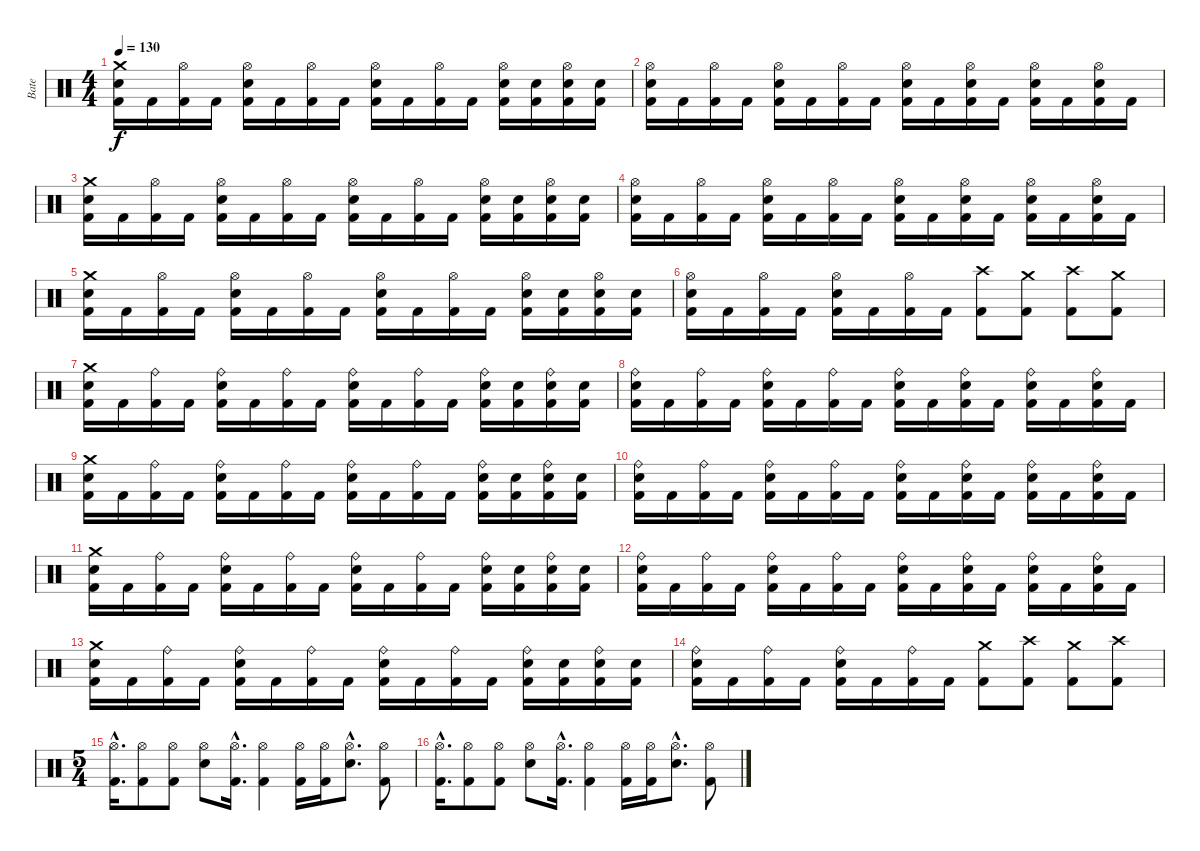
\track ("Bate" "Bate") {instrument percussion}
\staff {score}
\articulation defaults
\ts (4 4)
\tempo 130
\clef neutral
\ks c
("Crash medium (hit)" "Snare (hit) 2" "Kick (hit) 2").16{dy f} "Kick (hit) 2".16 ("Hi-Hat (open)" "Kick (hit) 2").16 "Kick (hit) 2".16 ("Hi-Hat (open)" "Snare (hit) 2" "Kick (hit) 2").16 "Kick (hit) 2".16 ("Hi-Hat (open)" "Kick (hit) 2").16 "Kick (hit) 2".16 ("Hi-Hat (open)" "Snare (hit) 2" "Kick (hit) 2").16 "Kick (hit) 2".16 ("Hi-Hat (open)" "Kick (hit) 2").16 "Kick (hit) 2".16 ("Hi-Hat (open)" "Snare (hit) 2" "Kick (hit) 2").16 ("Snare (hit) 2" "Kick (hit) 2").16 ("Hi-Hat (open)" "Snare (hit) 2" "Kick (hit) 2").16 ("Snare (hit) 2" "Kick (hit) 2").16 |
("Hi-Hat (open)" "Snare (hit) 2" "Kick (hit) 2").16 "Kick (hit) 2".16 ("Hi-Hat (open)" "Kick (hit) 2").16 "Kick (hit) 2".16 ("Hi-Hat (open)" "Snare (hit) 2" "Kick (hit) 2").16 "Kick (hit) 2".16 ("Hi-Hat (open)" "Kick (hit) 2").16 "Kick (hit) 2".16 ("Hi-Hat (open)" "Snare (hit) 2" "Kick (hit) 2").16 "Kick (hit) 2".16 ("Hi-Hat (open)" "Snare (hit) 2" "Kick (hit) 2").16 "Kick (hit) 2".16 ("Hi-Hat (open)" "Snare (hit) 2" "Kick (hit) 2").16 "Kick (hit) 2".16 ("Hi-Hat (open)" "Snare (hit) 2" "Kick (hit) 2").16 "Kick (hit) 2".16 |
("Crash medium (hit)" "Snare (hit) 2" "Kick (hit) 2").16 "Kick (hit) 2".16 ("Hi-Hat (open)" "Kick (hit) 2").16 "Kick (hit) 2".16 ("Hi-Hat (open)" "Snare (hit) 2" "Kick (hit) 2").16 "Kick (hit) 2".16 ("Hi-Hat (open)" "Kick (hit) 2").16 "Kick (hit) 2".16 ("Hi-Hat (open)" "Snare (hit) 2" "Kick (hit) 2").16 "Kick (hit) 2".16 ("Hi-Hat (open)" "Kick (hit) 2").16 "Kick (hit) 2".16 ("Hi-Hat (open)" "Snare (hit) 2" "Kick (hit) 2").16 ("Snare (hit) 2" "Kick (hit) 2").16 ("Hi-Hat (open)" "Snare (hit) 2" "Kick (hit) 2").16 ("Snare (hit) 2" "Kick (hit) 2").16 |
("Hi-Hat (open)" "Snare (hit) 2" "Kick (hit) 2").16 "Kick (hit) 2".16 ("Hi-Hat (open)" "Kick (hit) 2").16 "Kick (hit) 2".16 ("Hi-Hat (open)" "Snare (hit) 2" "Kick (hit) 2").16 "Kick (hit) 2".16 ("Hi-Hat (open)" "Kick (hit) 2").16 "Kick (hit) 2".16 ("Hi-Hat (open)" "Snare (hit) 2" "Kick (hit) 2").16 "Kick (hit) 2".16 ("Hi-Hat (open)" "Snare (hit) 2" "Kick (hit) 2").16 "Kick (hit) 2".16 ("Hi-Hat (open)" "Snare (hit) 2" "Kick (hit) 2").16 "Kick (hit) 2".16 ("Hi-Hat (open)" "Snare (hit) 2" "Kick (hit) 2").16 "Kick (hit) 2".16 |
("Crash medium (hit)" "Snare (hit) 2" "Kick (hit) 2").16 "Kick (hit) 2".16 ("Hi-Hat (open)" "Kick (hit) 2").16 "Kick (hit) 2".16 ("Hi-Hat (open)" "Snare (hit) 2" "Kick (hit) 2").16 "Kick (hit) 2".16 ("Hi-Hat (open)" "Kick (hit) 2").16 "Kick (hit) 2".16 ("Hi-Hat (open)" "Snare (hit) 2" "Kick (hit) 2").16 "Kick (hit) 2".16 ("Hi-Hat (open)" "Kick (hit) 2").16 "Kick (hit) 2".16 ("Hi-Hat (open)" "Snare (hit) 2" "Kick (hit) 2").16 ("Snare (hit) 2" "Kick (hit) 2").16 ("Hi-Hat (open)" "Snare (hit) 2" "Kick (hit) 2").16 ("Snare (hit) 2" "Kick (hit) 2").16 |
("Hi-Hat (open)" "Snare (hit) 2" "Kick (hit) 2").16 "Kick (hit) 2".16 ("Hi-Hat (open)" "Kick (hit) 2").16 "Kick (hit) 2".16 ("Hi-Hat (open)" "Snare (hit) 2" "Kick (hit) 2").16 "Kick (hit) 2".16 ("Hi-Hat (open)" "Kick (hit) 2").16 "Kick (hit) 2".16 ("Crash high (hit)" "Kick (hit) 2").8 ("Crash medium (hit)" "Kick (hit) 2").8 ("Crash high (hit)" "Kick (hit) 2").8 ("Crash medium (hit)" "Kick (hit) 2").8 |
("Crash medium (hit)" "Snare (hit) 2" "Kick (hit) 2").16 "Kick (hit) 2".16 ("Ride (bell)" "Kick (hit) 2").16 "Kick (hit) 2".16 ("Ride (bell)" "Snare (hit) 2" "Kick (hit) 2").16 "Kick (hit) 2".16 ("Ride (bell)" "Kick (hit) 2").16 "Kick (hit) 2".16 ("Ride (bell)" "Snare (hit) 2" "Kick (hit) 2").16 "Kick (hit) 2".16 ("Ride (bell)" "Kick (hit) 2").16 "Kick (hit) 2".16 ("Ride (bell)" "Snare (hit) 2" "Kick (hit) 2").16 ("Snare (hit) 2" "Kick (hit) 2").16 ("Ride (bell)" "Snare (hit) 2" "Kick (hit) 2").16 ("Snare (hit) 2" "Kick (hit) 2").16 |
("Ride (bell)" "Snare (hit) 2" "Kick (hit) 2").16 "Kick (hit) 2".16 ("Ride (bell)" "Kick (hit) 2").16 "Kick (hit) 2".16 ("Ride (bell)" "Snare (hit) 2" "Kick (hit) 2").16 "Kick (hit) 2".16 ("Ride (bell)" "Kick (hit) 2").16 "Kick (hit) 2".16 ("Ride (bell)" "Snare (hit) 2" "Kick (hit) 2").16 "Kick (hit) 2".16 ("Ride (bell)" "Snare (hit) 2" "Kick (hit) 2").16 "Kick (hit) 2".16 ("Ride (bell)" "Snare (hit) 2" "Kick (hit) 2").16 "Kick (hit) 2".16 ("Ride (bell)" "Snare (hit) 2" "Kick (hit) 2").16 "Kick (hit) 2".16 |
("Crash medium (hit)" "Snare (hit) 2" "Kick (hit) 2").16 "Kick (hit) 2".16 ("Ride (bell)" "Kick (hit) 2").16 "Kick (hit) 2".16 ("Ride (bell)" "Snare (hit) 2" "Kick (hit) 2").16 "Kick (hit) 2".16 ("Ride (bell)" "Kick (hit) 2").16 "Kick (hit) 2".16 ("Ride (bell)" "Snare (hit) 2" "Kick (hit) 2").16 "Kick (hit) 2".16 ("Ride (bell)" "Kick (hit) 2").16 "Kick (hit) 2".16 ("Ride (bell)" "Snare (hit) 2" "Kick (hit) 2").16 ("Snare (hit) 2" "Kick (hit) 2").16 ("Ride (bell)" "Snare (hit) 2" "Kick (hit) 2").16 ("Snare (hit) 2" "Kick (hit) 2").16 |
("Ride (bell)" "Snare (hit) 2" "Kick (hit) 2").16 "Kick (hit) 2".16 ("Ride (bell)" "Kick (hit) 2").16 "Kick (hit) 2".16 ("Ride (bell)" "Snare (hit) 2" "Kick (hit) 2").16 "Kick (hit) 2".16 ("Ride (bell)" "Kick (hit) 2").16 "Kick (hit) 2".16 ("Ride (bell)" "Snare (hit) 2" "Kick (hit) 2").16 "Kick (hit) 2".16 ("Ride (bell)" "Snare (hit) 2" "Kick (hit) 2").16 "Kick (hit) 2".16 ("Ride (bell)" "Snare (hit) 2" "Kick (hit) 2").16 "Kick (hit) 2".16 ("Ride (bell)" "Snare (hit) 2" "Kick (hit) 2").16 "Kick (hit) 2".16 |
("Crash medium (hit)" "Snare (hit) 2" "Kick (hit) 2").16 "Kick (hit) 2".16 ("Ride (bell)" "Kick (hit) 2").16 "Kick (hit) 2".16 ("Ride (bell)" "Snare (hit) 2" "Kick (hit) 2").16 "Kick (hit) 2".16 ("Ride (bell)" "Kick (hit) 2").16 "Kick (hit) 2".16 ("Ride (bell)" "Snare (hit) 2" "Kick (hit) 2").16 "Kick (hit) 2".16 ("Ride (bell)" "Kick (hit) 2").16 "Kick (hit) 2".16 ("Ride (bell)" "Snare (hit) 2" "Kick (hit) 2").16 ("Snare (hit) 2" "Kick (hit) 2").16 ("Ride (bell)" "Snare (hit) 2" "Kick (hit) 2").16 ("Snare (hit) 2" "Kick (hit) 2").16 |
("Ride (bell)" "Snare (hit) 2" "Kick (hit) 2").16 "Kick (hit) 2".16 ("Ride (bell)" "Kick (hit) 2").16 "Kick (hit) 2".16 ("Ride (bell)" "Snare (hit) 2" "Kick (hit) 2").16 "Kick (hit) 2".16 ("Ride (bell)" "Kick (hit) 2").16 "Kick (hit) 2".16 ("Ride (bell)" "Snare (hit) 2" "Kick (hit) 2").16 "Kick (hit) 2".16 ("Ride (bell)" "Snare (hit) 2" "Kick (hit) 2").16 "Kick (hit) 2".16 ("Ride (bell)" "Snare (hit) 2" "Kick (hit) 2").16 "Kick (hit) 2".16 ("Ride (bell)" "Snare (hit) 2" "Kick (hit) 2").16 "Kick (hit) 2".16 |
("Crash medium (hit)" "Snare (hit) 2" "Kick (hit) 2").16 "Kick (hit) 2".16 ("Ride (bell)" "Kick (hit) 2").16 "Kick (hit) 2".16 ("Ride (bell)" "Snare (hit) 2" "Kick (hit) 2").16 "Kick (hit) 2".16 ("Ride (bell)" "Kick (hit) 2").16 "Kick (hit) 2".16 ("Ride (bell)" "Snare (hit) 2" "Kick (hit) 2").16 "Kick (hit) 2".16 ("Ride (bell)" "Kick (hit) 2").16 "Kick (hit) 2".16 ("Ride (bell)" "Snare (hit) 2" "Kick (hit) 2").16 ("Snare (hit) 2" "Kick (hit) 2").16 ("Ride (bell)" "Snare (hit) 2" "Kick (hit) 2").16 ("Snare (hit) 2" "Kick (hit) 2").16 |
("Ride (bell)" "Snare (hit) 2" "Kick (hit) 2").16 "Kick (hit) 2".16 ("Ride (bell)" "Kick (hit) 2").16 "Kick (hit) 2".16 ("Ride (bell)" "Snare (hit) 2" "Kick (hit) 2").16 "Kick (hit) 2".16 ("Ride (bell)" "Kick (hit) 2").16 "Kick (hit) 2".16 ("Crash medium (hit)" "Kick (hit) 2").8 ("Crash high (hit)" "Kick (hit) 2").8 ("Crash medium (hit)" "Kick (hit) 2").8 ("Crash high (hit)" "Kick (hit) 2").8 |
\ts (5 4)
("Hi-Hat (open)"{hac} "Kick (hit) 2"{hac}).16{d} ("Hi-Hat (open)" "Kick (hit) 2").8 ("Hi-Hat (open)" "Kick (hit) 2").8 ("Hi-Hat (open)" "Snare (hit) 2").8 ("Hi-Hat (open)"{hac} "Kick (hit) 2"{hac}).16{d} ("Hi-Hat (open)" "Kick (hit) 2").4 ("Hi-Hat (open)" "Kick (hit) 2").16 ("Hi-Hat (open)" "Kick (hit) 2").16 ("Hi-Hat (open)"{hac} "Snare (hit) 2"{hac}).8{d} ("Hi-Hat (open)" "Kick (hit) 2").8 |
("Hi-Hat (open)"{hac} "Kick (hit) 2"{hac}).16{d} ("Hi-Hat (open)" "Kick (hit) 2").8 ("Hi-Hat (open)" "Kick (hit) 2").8 ("Hi-Hat (open)" "Snare (hit) 2").8 ("Hi-Hat (open)"{hac} "Kick (hit) 2"{hac}).16{d} ("Hi-Hat (open)" "Kick (hit) 2").4 ("Hi-Hat (open)" "Kick (hit) 2").16 ("Hi-Hat (open)" "Kick (hit) 2").16 ("Hi-Hat (open)"{hac} "Snare (hit) 2"{hac}).8{d} ("Hi-Hat (open)" "Kick (hit) 2").8
